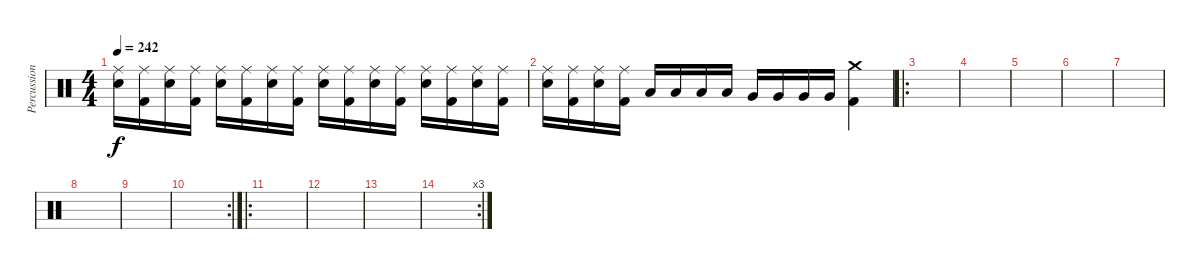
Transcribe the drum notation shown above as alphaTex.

\track ("Percussion" "Percussion") {instrument percussion}
\staff {score}
\articulation defaults
\ts (4 4)
\tempo 242
\clef neutral
\ks c
("Ride (middle)" "Electric Snare (hit)").16{dy f} ("Kick (hit) 2" "Ride (middle)").16 ("Ride (middle)" "Electric Snare (hit)").16 ("Kick (hit) 2" "Ride (middle)").16 ("Ride (middle)" "Electric Snare (hit)").16 ("Kick (hit) 2" "Ride (middle)").16 ("Ride (middle)" "Electric Snare (hit)").16 ("Kick (hit) 2" "Ride (middle)").16 ("Ride (middle)" "Electric Snare (hit)").16 ("Kick (hit) 2" "Ride (middle)").16 ("Ride (middle)" "Electric Snare (hit)").16 ("Kick (hit) 2" "Ride (middle)").16 ("Ride (middle)" "Electric Snare (hit)").16 ("Kick (hit) 2" "Ride (middle)").16 ("Ride (middle)" "Electric Snare (hit)").16 ("Kick (hit) 2" "Ride (middle)").16 |
("Ride (middle)" "Electric Snare (hit)").16 ("Kick (hit) 2" "Ride (middle)").16 ("Ride (middle)" "Electric Snare (hit)").16 ("Kick (hit) 2" "Ride (middle)").16 "Low Tom (hit)".16 "Low Tom (hit)".16 "Low Tom (hit)".16 "Low Tom (hit)".16 "Very Low Tom (hit)".16 "Very Low Tom (hit)".16 "Very Low Tom (hit)".16 "Very Low Tom (hit)".16 ("Kick (hit) 2" "Crash medium (hit)").4 |
\ro
|
|
|
|
|
|
|
\rc 2
|
\ro
|
|
|
\rc 3
